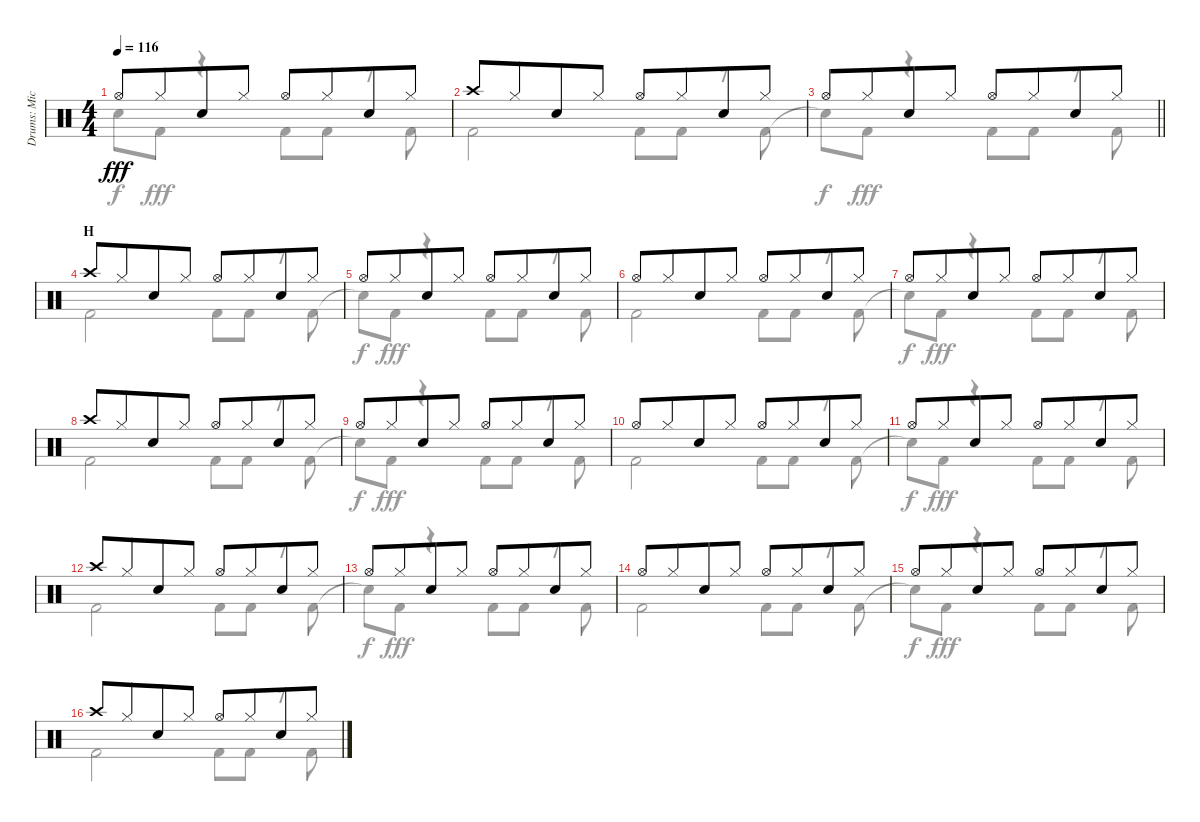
\track ("Drums: Mick" "Drums: Mic") {instrument percussion}
\staff {score}
\articulation defaults
\voice
\ts (4 4)
\tempo 116
\clef neutral
\ks c "Hi-Hat (open)".8{dy fff} "Hi-Hat (closed)".8{beam merge} "Snare (hit) 2".8 "Hi-Hat (closed)".8 "Hi-Hat (open)".8 "Hi-Hat (closed)".8{beam merge} "Snare (hit) 2".8 "Hi-Hat (closed)".8
|
"Crash high (hit)".8 "Hi-Hat (closed)".8{beam merge} "Snare (hit) 2".8 "Hi-Hat (closed)".8 "Hi-Hat (open)".8 "Hi-Hat (closed)".8{beam merge} "Snare (hit) 2".8 "Hi-Hat (closed)".8 |
\barLineRight lightlight "Hi-Hat (open)".8 "Hi-Hat (closed)".8{beam merge} "Snare (hit) 2".8 "Hi-Hat (closed)".8 "Hi-Hat (open)".8 "Hi-Hat (closed)".8{beam merge} "Snare (hit) 2".8 "Hi-Hat (closed)".8
|
\section ("" "H")
"Crash high (hit)".8 "Hi-Hat (closed)".8{beam merge} "Snare (hit) 2".8 "Hi-Hat (closed)".8 "Hi-Hat (open)".8 "Hi-Hat (closed)".8{beam merge} "Snare (hit) 2".8 "Hi-Hat (closed)".8 |
"Hi-Hat (open)".8 "Hi-Hat (closed)".8{beam merge} "Snare (hit) 2".8 "Hi-Hat (closed)".8 "Hi-Hat (open)".8 "Hi-Hat (closed)".8{beam merge} "Snare (hit) 2".8 "Hi-Hat (closed)".8 |
"Hi-Hat (open)".8 "Hi-Hat (closed)".8{beam merge} "Snare (hit) 2".8 "Hi-Hat (closed)".8 "Hi-Hat (open)".8 "Hi-Hat (closed)".8{beam merge} "Snare (hit) 2".8 "Hi-Hat (closed)".8 |
"Hi-Hat (open)".8 "Hi-Hat (closed)".8{beam merge} "Snare (hit) 2".8 "Hi-Hat (closed)".8 "Hi-Hat (open)".8 "Hi-Hat (closed)".8{beam merge} "Snare (hit) 2".8 "Hi-Hat (closed)".8 |
"Crash high (hit)".8 "Hi-Hat (closed)".8{beam merge} "Snare (hit) 2".8 "Hi-Hat (closed)".8 "Hi-Hat (open)".8 "Hi-Hat (closed)".8{beam merge} "Snare (hit) 2".8 "Hi-Hat (closed)".8 |
"Hi-Hat (open)".8 "Hi-Hat (closed)".8{beam merge} "Snare (hit) 2".8 "Hi-Hat (closed)".8 "Hi-Hat (open)".8 "Hi-Hat (closed)".8{beam merge} "Snare (hit) 2".8 "Hi-Hat (closed)".8 |
"Hi-Hat (open)".8 "Hi-Hat (closed)".8{beam merge} "Snare (hit) 2".8 "Hi-Hat (closed)".8 "Hi-Hat (open)".8 "Hi-Hat (closed)".8{beam merge} "Snare (hit) 2".8 "Hi-Hat (closed)".8 |
"Hi-Hat (open)".8 "Hi-Hat (closed)".8{beam merge} "Snare (hit) 2".8 "Hi-Hat (closed)".8 "Hi-Hat (open)".8 "Hi-Hat (closed)".8{beam merge} "Snare (hit) 2".8 "Hi-Hat (closed)".8 |
"Crash high (hit)".8 "Hi-Hat (closed)".8{beam merge} "Snare (hit) 2".8 "Hi-Hat (closed)".8 "Hi-Hat (open)".8 "Hi-Hat (closed)".8{beam merge} "Snare (hit) 2".8 "Hi-Hat (closed)".8 |
"Hi-Hat (open)".8 "Hi-Hat (closed)".8{beam merge} "Snare (hit) 2".8 "Hi-Hat (closed)".8 "Hi-Hat (open)".8 "Hi-Hat (closed)".8{beam merge} "Snare (hit) 2".8 "Hi-Hat (closed)".8 |
"Hi-Hat (open)".8 "Hi-Hat (closed)".8{beam merge} "Snare (hit) 2".8 "Hi-Hat (closed)".8 "Hi-Hat (open)".8 "Hi-Hat (closed)".8{beam merge} "Snare (hit) 2".8 "Hi-Hat (closed)".8 |
"Hi-Hat (open)".8 "Hi-Hat (closed)".8{beam merge} "Snare (hit) 2".8 "Hi-Hat (closed)".8 "Hi-Hat (open)".8 "Hi-Hat (closed)".8{beam merge} "Snare (hit) 2".8 "Hi-Hat (closed)".8 |
"Crash high (hit)".8 "Hi-Hat (closed)".8{beam merge} "Snare (hit) 2".8 "Hi-Hat (closed)".8 "Hi-Hat (open)".8 "Hi-Hat (closed)".8{beam merge} "Snare (hit) 2".8 "Hi-Hat (closed)".8
\voice
\clef neutral
\ottava regular
\simile none
\ks c "Snare (hit)"{t}.8{dy f} "Kick (hit) 2".8{dy fff}
r.4 "Kick (hit) 2".8 "Kick (hit) 2".8 r.8 "Kick (hit) 2".8 |
"Kick (hit) 2".2 "Kick (hit) 2".8 "Kick (hit) 2".8 r.8 "Kick (hit) 2".8 |
\barLineRight lightlight "Snare (hit)"{t}.8{dy f} "Kick (hit) 2".8{dy fff}
r.4 "Kick (hit) 2".8 "Kick (hit) 2".8 r.8 "Kick (hit) 2".8 |
"Kick (hit) 2".2 "Kick (hit) 2".8 "Kick (hit) 2".8 r.8 "Kick (hit) 2".8 |
"Snare (hit)"{t}.8{dy f} "Kick (hit) 2".8{dy fff} r.4 "Kick (hit) 2".8 "Kick (hit) 2".8 r.8 "Kick (hit) 2".8 |
"Kick (hit) 2".2 "Kick (hit) 2".8 "Kick (hit) 2".8 r.8 "Kick (hit) 2".8 |
"Snare (hit)"{t}.8{dy f} "Kick (hit) 2".8{dy fff} r.4 "Kick (hit) 2".8 "Kick (hit) 2".8 r.8 "Kick (hit) 2".8 |
"Kick (hit) 2".2 "Kick (hit) 2".8 "Kick (hit) 2".8 r.8 "Kick (hit) 2".8 |
"Snare (hit)"{t}.8{dy f} "Kick (hit) 2".8{dy fff} r.4 "Kick (hit) 2".8 "Kick (hit) 2".8 r.8 "Kick (hit) 2".8 |
"Kick (hit) 2".2 "Kick (hit) 2".8 "Kick (hit) 2".8 r.8 "Kick (hit) 2".8 |
"Snare (hit)"{t}.8{dy f} "Kick (hit) 2".8{dy fff} r.4 "Kick (hit) 2".8 "Kick (hit) 2".8 r.8 "Kick (hit) 2".8 |
"Kick (hit) 2".2 "Kick (hit) 2".8 "Kick (hit) 2".8 r.8 "Kick (hit) 2".8 |
"Snare (hit)"{t}.8{dy f} "Kick (hit) 2".8{dy fff} r.4 "Kick (hit) 2".8 "Kick (hit) 2".8 r.8 "Kick (hit) 2".8 |
"Kick (hit) 2".2 "Kick (hit) 2".8 "Kick (hit) 2".8 r.8 "Kick (hit) 2".8 |
"Snare (hit)"{t}.8{dy f} "Kick (hit) 2".8{dy fff} r.4 "Kick (hit) 2".8 "Kick (hit) 2".8 r.8 "Kick (hit) 2".8 |
"Kick (hit) 2".2 "Kick (hit) 2".8 "Kick (hit) 2".8 r.8 "Kick (hit) 2".8
